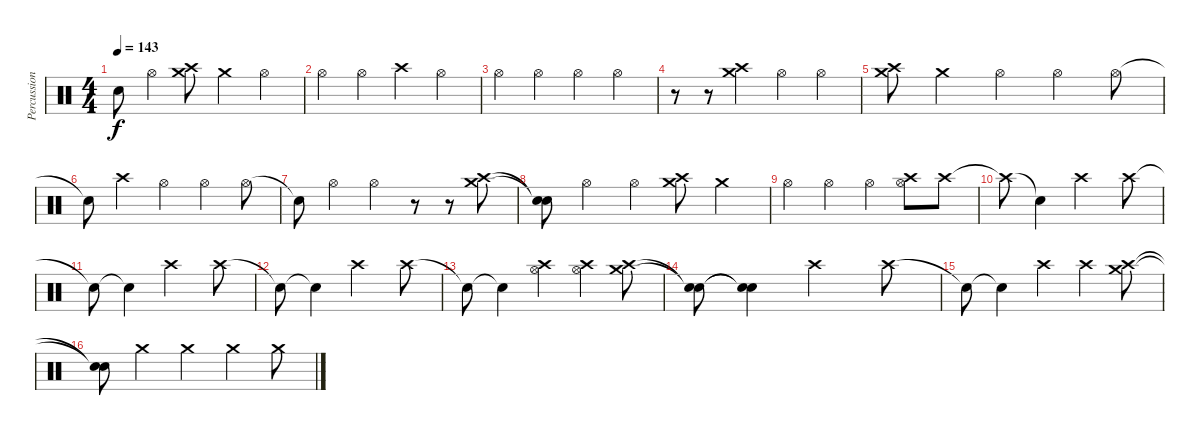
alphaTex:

\track ("Percussion2" "Percussion") {instrument percussion}
\staff {score}
\articulation defaults
\ts (4 4)
\tempo 143
\clef neutral
\ks c "Snare (hit)"{t}.8{dy f} "Hi-Hat (open)".4
("Crash high (hit)" "Crash medium (hit)").8 "Crash medium (hit)".4 "Hi-Hat (open)".4 |
"Hi-Hat (open)".4 "Hi-Hat (open)".4 "Crash high (hit)".4 "Hi-Hat (open)".4 |
"Hi-Hat (open)".4 "Hi-Hat (open)".4 "Hi-Hat (open)".4 "Hi-Hat (open)".4 |
r.8 r.8 ("Crash high (hit)" "Crash medium (hit)").4 "Hi-Hat (open)".4 "Hi-Hat (open)".4 |
("Crash high (hit)" "Crash medium (hit)").8 "Crash medium (hit)".4 "Hi-Hat (open)".4 "Hi-Hat (open)".4 "Hi-Hat (open)".8 |
"Snare (hit)"{t}.8 "Crash high (hit)".4 "Hi-Hat (open)".4 "Hi-Hat (open)".4 "Hi-Hat (open)".8 |
"Snare (hit)"{t}.8 "Hi-Hat (open)".4 "Hi-Hat (open)".4 r.8 r.8 ("Crash high (hit)" "Crash medium (hit)").8 |
("Snare (hit)"{t} "Snare (hit)"{t}).8 "Hi-Hat (open)".4 "Hi-Hat (open)".4 ("Crash high (hit)" "Crash medium (hit)").8 "Crash medium (hit)".4 |
"Hi-Hat (open)".4 "Hi-Hat (open)".4 "Hi-Hat (open)".4 ("Crash high (hit)" "Hi-Hat (open)").8 "Crash high (hit)".8 |
"Crash high (hit)"{t}.8 "Snare (hit)"{t}.4 "Crash high (hit)".2 "Crash high (hit)".8 |
"Snare (hit)"{t}.8 "Snare (hit)"{t}.4 "Crash high (hit)".2 "Crash high (hit)".8 |
"Snare (hit)"{t}.8 "Snare (hit)"{t}.4 "Crash high (hit)".2 "Crash high (hit)".8 |
"Snare (hit)"{t}.8 "Snare (hit)"{t}.4 ("Crash high (hit)" "Hi-Hat (open)").4 ("Crash high (hit)" "Hi-Hat (open)").4 ("Crash high (hit)" "Crash medium (hit)").8 |
("Snare (hit)"{t} "Snare (hit)"{t}).8 ("Snare (hit)"{t} "Snare (hit)"{t}).4 "Crash high (hit)".2 "Crash high (hit)".8 |
"Snare (hit)"{t}.8 "Snare (hit)"{t}.4 "Crash high (hit)".4 "Crash high (hit)".4 ("Crash high (hit)" "Crash medium (hit)").8 |
("Snare (hit)"{t} "Snare (hit)"{t}).8 "Crash medium (hit)".4 "Crash medium (hit)".4 "Crash medium (hit)".4 "Crash medium (hit)".8
